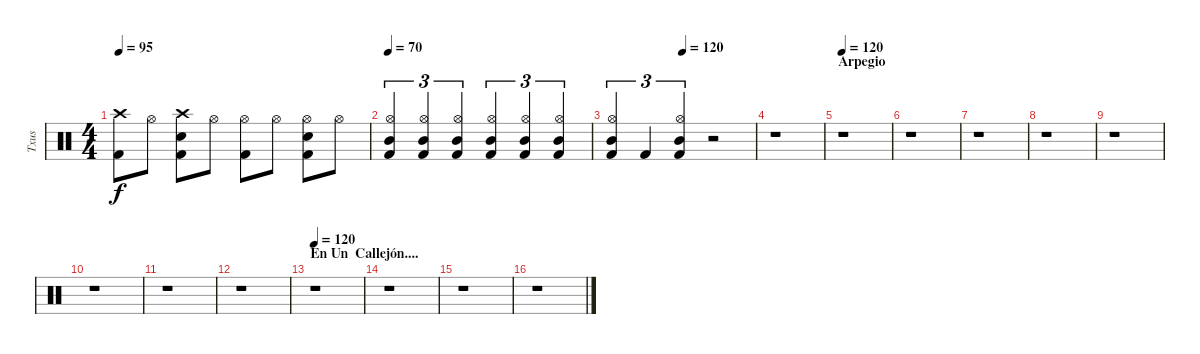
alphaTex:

\track ("Txus" "Txus") {instrument percussion}
\staff {score}
\articulation defaults
\ts (4 4)
\tempo 95
\clef neutral
\ks c
("Kick (hit) 2" "Crash high (hit)").8{dy f} "Hi-Hat (open)".8 ("Kick (hit) 2" "Crash high (hit)" "Snare (hit) 2").8 "Hi-Hat (open)".8 ("Kick (hit) 2" "Hi-Hat (open)").8 "Hi-Hat (open)".8 ("Kick (hit) 2" "Hi-Hat (open)" "Snare (hit) 2").8 "Hi-Hat (open)".8 |
\tempo 70
("Hi-Hat (open)" "Mid Tom (hit)" "Kick (hit) 2").4{tu (3 2)} ("Hi-Hat (open)" "Mid Tom (hit)" "Kick (hit) 2").4{tu (3 2)} ("Hi-Hat (open)" "Mid Tom (hit)" "Kick (hit) 2").4{tu (3 2)} ("Hi-Hat (open)" "Mid Tom (hit)" "Kick (hit) 2").4{tu (3 2)} ("Hi-Hat (open)" "Mid Tom (hit)" "Kick (hit) 2").4{tu (3 2)} ("Hi-Hat (open)" "Mid Tom (hit)" "Kick (hit) 2").4{tu (3 2)} |
\tempo (120 0.5)
("Hi-Hat (open)" "Mid Tom (hit)" "Kick (hit) 2").4{tu (3 2)} "Kick (hit) 2".4{tu (3 2)} ("Hi-Hat (open)" "Mid Tom (hit)" "Kick (hit) 2").4{tu (3 2)} r.2 |
r.1 |
\section ("" "Arpegio")
\tempo 120
r.1 |
r.1 |
r.1 |
r.1 |
r.1 |
r.1 |
r.1 |
r.1 |
\section ("" "En Un  Callejón....")
\tempo 120
r.1 |
r.1 |
r.1 |
r.1
